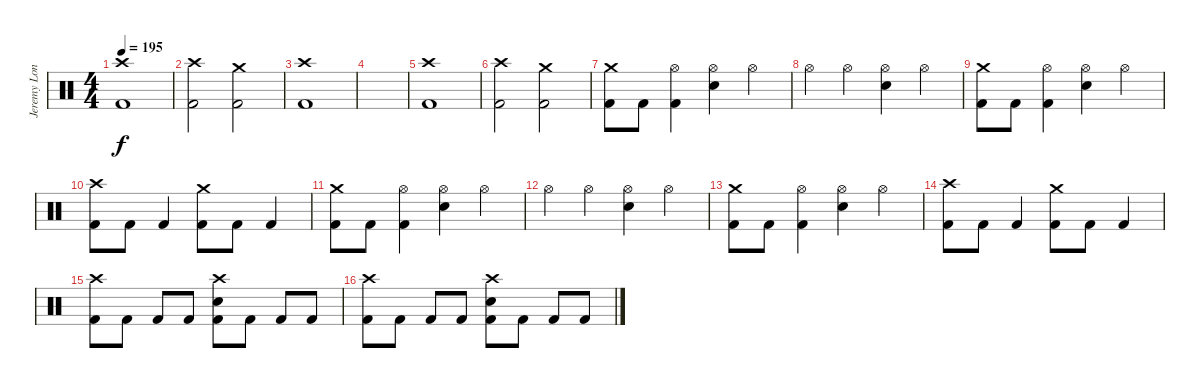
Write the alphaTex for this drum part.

\track ("Jeremy London" "Jeremy Lon") {instrument percussion}
\staff {score}
\articulation defaults
\ts (4 4)
\tempo 195
\clef neutral
\ks c
("Crash high (hit)" "Kick (hit) 2").1{dy f} |
("Crash high (hit)" "Kick (hit) 2").2 ("Crash medium (hit)" "Kick (hit) 2").2 |
("Crash high (hit)" "Kick (hit) 2").1 |
|
("Crash high (hit)" "Kick (hit) 2").1 |
("Crash high (hit)" "Kick (hit) 2").2 ("Crash medium (hit)" "Kick (hit) 2").2 |
("Crash medium (hit)" "Kick (hit) 2").8 "Kick (hit) 2".8 ("Hi-Hat (open)" "Kick (hit) 2").4 ("Hi-Hat (open)" "Electric Snare (hit)").4 "Hi-Hat (open)".4 |
"Hi-Hat (open)".4 "Hi-Hat (open)".4 ("Hi-Hat (open)" "Electric Snare (hit)").4 "Hi-Hat (open)".4 |
("Crash medium (hit)" "Kick (hit) 2").8 "Kick (hit) 2".8 ("Hi-Hat (open)" "Kick (hit) 2").4 ("Hi-Hat (open)" "Electric Snare (hit)").4 "Hi-Hat (open)".4 |
("Crash high (hit)" "Kick (hit) 2").8 "Kick (hit) 2".8 "Kick (hit) 2".4 ("Crash medium (hit)" "Kick (hit) 2").8 "Kick (hit) 2".8 "Kick (hit) 2".4 |
("Crash medium (hit)" "Kick (hit) 2").8 "Kick (hit) 2".8 ("Hi-Hat (open)" "Kick (hit) 2").4 ("Hi-Hat (open)" "Electric Snare (hit)").4 "Hi-Hat (open)".4 |
"Hi-Hat (open)".4 "Hi-Hat (open)".4 ("Hi-Hat (open)" "Electric Snare (hit)").4 "Hi-Hat (open)".4 |
("Crash medium (hit)" "Kick (hit) 2").8 "Kick (hit) 2".8 ("Hi-Hat (open)" "Kick (hit) 2").4 ("Hi-Hat (open)" "Electric Snare (hit)").4 "Hi-Hat (open)".4 |
("Crash high (hit)" "Kick (hit) 2").8 "Kick (hit) 2".8 "Kick (hit) 2".4 ("Crash medium (hit)" "Kick (hit) 2").8 "Kick (hit) 2".8 "Kick (hit) 2".4 |
("Crash high (hit)" "Kick (hit) 2").8 "Kick (hit) 2".8 "Kick (hit) 2".8 "Kick (hit) 2".8 ("Crash high (hit)" "Electric Snare (hit)" "Kick (hit) 2").8 "Kick (hit) 2".8 "Kick (hit) 2".8 "Kick (hit) 2".8 |
("Crash high (hit)" "Kick (hit) 2").8 "Kick (hit) 2".8 "Kick (hit) 2".8 "Kick (hit) 2".8 ("Crash high (hit)" "Electric Snare (hit)" "Kick (hit) 2").8 "Kick (hit) 2".8 "Kick (hit) 2".8 "Kick (hit) 2".8
